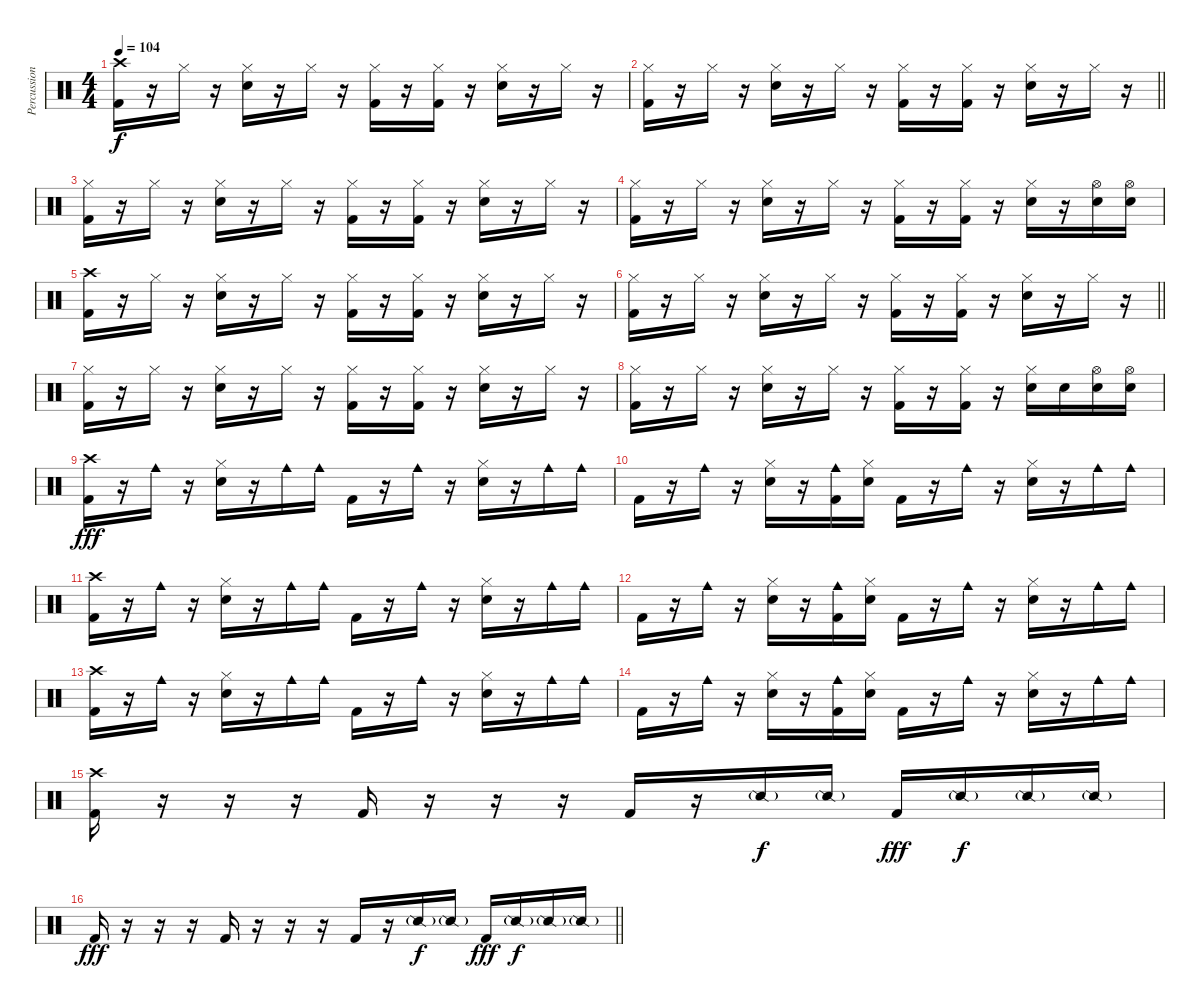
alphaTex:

\track ("Percussion" "Percussion") {instrument percussion}
\staff {score}
\articulation defaults
\ts (4 4)
\tempo 104
\clef neutral
\ks c
("Crash high (hit)" "Kick (hit) 2").16{dy f} r.16 "Hi-Hat (closed)".16 r.16 ("Hi-Hat (closed)" "Electric Snare (hit)").16 r.16 "Hi-Hat (closed)".16 r.16 ("Hi-Hat (closed)" "Kick (hit) 2").16 r.16 ("Hi-Hat (closed)" "Kick (hit) 2").16 r.16 ("Hi-Hat (closed)" "Electric Snare (hit)").16 r.16 "Hi-Hat (closed)".16 r.16 |
\barLineRight lightlight
("Hi-Hat (closed)" "Kick (hit) 2").16 r.16 "Hi-Hat (closed)".16 r.16 ("Hi-Hat (closed)" "Electric Snare (hit)").16 r.16 "Hi-Hat (closed)".16 r.16 ("Hi-Hat (closed)" "Kick (hit) 2").16 r.16 ("Hi-Hat (closed)" "Kick (hit) 2").16 r.16 ("Hi-Hat (closed)" "Electric Snare (hit)").16 r.16 "Hi-Hat (closed)".16 r.16 |
("Hi-Hat (closed)" "Kick (hit) 2").16 r.16 "Hi-Hat (closed)".16 r.16 ("Hi-Hat (closed)" "Electric Snare (hit)").16 r.16 "Hi-Hat (closed)".16 r.16 ("Hi-Hat (closed)" "Kick (hit) 2").16 r.16 ("Hi-Hat (closed)" "Kick (hit) 2").16 r.16 ("Hi-Hat (closed)" "Electric Snare (hit)").16 r.16 "Hi-Hat (closed)".16 r.16 |
("Hi-Hat (closed)" "Kick (hit) 2").16 r.16 "Hi-Hat (closed)".16 r.16 ("Hi-Hat (closed)" "Electric Snare (hit)").16 r.16 "Hi-Hat (closed)".16 r.16 ("Hi-Hat (closed)" "Kick (hit) 2").16 r.16 ("Hi-Hat (closed)" "Kick (hit) 2").16 r.16 ("Hi-Hat (closed)" "Electric Snare (hit)").16 r.16 ("Hi-Hat (open)" "Electric Snare (hit)").16 ("Hi-Hat (open)" "Electric Snare (hit)").16 |
("Crash high (hit)" "Kick (hit) 2").16 r.16 "Hi-Hat (closed)".16 r.16 ("Hi-Hat (closed)" "Electric Snare (hit)").16 r.16 "Hi-Hat (closed)".16 r.16 ("Hi-Hat (closed)" "Kick (hit) 2").16 r.16 ("Hi-Hat (closed)" "Kick (hit) 2").16 r.16 ("Hi-Hat (closed)" "Electric Snare (hit)").16 r.16 "Hi-Hat (closed)".16 r.16 |
\barLineRight lightlight
("Hi-Hat (closed)" "Kick (hit) 2").16 r.16 "Hi-Hat (closed)".16 r.16 ("Hi-Hat (closed)" "Electric Snare (hit)").16 r.16 "Hi-Hat (closed)".16 r.16 ("Hi-Hat (closed)" "Kick (hit) 2").16 r.16 ("Hi-Hat (closed)" "Kick (hit) 2").16 r.16 ("Hi-Hat (closed)" "Electric Snare (hit)").16 r.16 "Hi-Hat (closed)".16 r.16 |
("Hi-Hat (closed)" "Kick (hit) 2").16 r.16 "Hi-Hat (closed)".16 r.16 ("Hi-Hat (closed)" "Electric Snare (hit)").16 r.16 "Hi-Hat (closed)".16 r.16 ("Hi-Hat (closed)" "Kick (hit) 2").16 r.16 ("Hi-Hat (closed)" "Kick (hit) 2").16 r.16 ("Hi-Hat (closed)" "Electric Snare (hit)").16 r.16 "Hi-Hat (closed)".16 r.16 |
("Hi-Hat (closed)" "Kick (hit) 2").16 r.16 "Hi-Hat (closed)".16 r.16 ("Hi-Hat (closed)" "Electric Snare (hit)").16 r.16 "Hi-Hat (closed)".16 r.16 ("Hi-Hat (closed)" "Kick (hit) 2").16 r.16 ("Hi-Hat (closed)" "Kick (hit) 2").16 r.16 ("Hi-Hat (closed)" "Electric Snare (hit)").16 "Electric Snare (hit)".16 ("Hi-Hat (open)" "Electric Snare (hit)").16 ("Hi-Hat (open)" "Electric Snare (hit)").16 |
("Crash high (hit)" "Kick (hit) 2").16{dy fff} r.16 "Cowbell medium (hit)".16 r.16 ("Hi-Hat (closed)" "Electric Snare (hit)").16 r.16 "Cowbell medium (hit)".16 "Cowbell medium (hit)".16 "Kick (hit) 2".16 r.16 "Cowbell medium (hit)".16 r.16 ("Hi-Hat (closed)" "Electric Snare (hit)").16 r.16 "Cowbell medium (hit)".16 "Cowbell medium (hit)".16 |
"Kick (hit) 2".16 r.16 "Cowbell medium (hit)".16 r.16 ("Hi-Hat (closed)" "Electric Snare (hit)").16 r.16 ("Cowbell medium (hit)" "Kick (hit) 2").16 ("Hi-Hat (closed)" "Electric Snare (hit)").16 "Kick (hit) 2".16 r.16 "Cowbell medium (hit)".16 r.16 ("Hi-Hat (closed)" "Electric Snare (hit)").16 r.16 "Cowbell medium (hit)".16 "Cowbell medium (hit)".16 |
("Crash high (hit)" "Kick (hit) 2").16 r.16 "Cowbell medium (hit)".16 r.16 ("Hi-Hat (closed)" "Electric Snare (hit)").16 r.16 "Cowbell medium (hit)".16 "Cowbell medium (hit)".16 "Kick (hit) 2".16 r.16 "Cowbell medium (hit)".16 r.16 ("Hi-Hat (closed)" "Electric Snare (hit)").16 r.16 "Cowbell medium (hit)".16 "Cowbell medium (hit)".16 |
"Kick (hit) 2".16 r.16 "Cowbell medium (hit)".16 r.16 ("Hi-Hat (closed)" "Electric Snare (hit)").16 r.16 ("Cowbell medium (hit)" "Kick (hit) 2").16 ("Hi-Hat (closed)" "Electric Snare (hit)").16 "Kick (hit) 2".16 r.16 "Cowbell medium (hit)".16 r.16 ("Hi-Hat (closed)" "Electric Snare (hit)").16 r.16 "Cowbell medium (hit)".16 "Cowbell medium (hit)".16 |
("Crash high (hit)" "Kick (hit) 2").16 r.16 "Cowbell medium (hit)".16 r.16 ("Hi-Hat (closed)" "Electric Snare (hit)").16 r.16 "Cowbell medium (hit)".16 "Cowbell medium (hit)".16 "Kick (hit) 2".16 r.16 "Cowbell medium (hit)".16 r.16 ("Hi-Hat (closed)" "Electric Snare (hit)").16 r.16 "Cowbell medium (hit)".16 "Cowbell medium (hit)".16 |
"Kick (hit) 2".16 r.16 "Cowbell medium (hit)".16 r.16 ("Hi-Hat (closed)" "Electric Snare (hit)").16 r.16 ("Cowbell medium (hit)" "Kick (hit) 2").16 ("Hi-Hat (closed)" "Electric Snare (hit)").16 "Kick (hit) 2".16 r.16 "Cowbell medium (hit)".16 r.16 ("Hi-Hat (closed)" "Electric Snare (hit)").16 r.16 "Cowbell medium (hit)".16 "Cowbell medium (hit)".16 |
("Crash high (hit)" "Kick (hit) 2").16 r.16 r.16 r.16 "Kick (hit) 2".16 r.16 r.16 r.16 "Kick (hit) 2".16 r.16 "Snare (side stick) 2"{g}.16{dy f} "Snare (side stick) 2"{g}.16 "Kick (hit) 2".16{dy fff} "Snare (side stick) 2"{g}.16{dy f} "Snare (side stick) 2"{g}.16 "Snare (side stick) 2"{g}.16 |
\barLineRight lightlight "Kick (hit) 2".16{dy fff}
r.16 r.16 r.16 "Kick (hit) 2".16 r.16 r.16 r.16 "Kick (hit) 2".16 r.16 "Snare (side stick) 2"{g}.16{dy f} "Snare (side stick) 2"{g}.16 "Kick (hit) 2".16{dy fff} "Snare (side stick) 2"{g}.16{dy f} "Snare (side stick) 2"{g}.16 "Snare (side stick) 2"{g}.16
